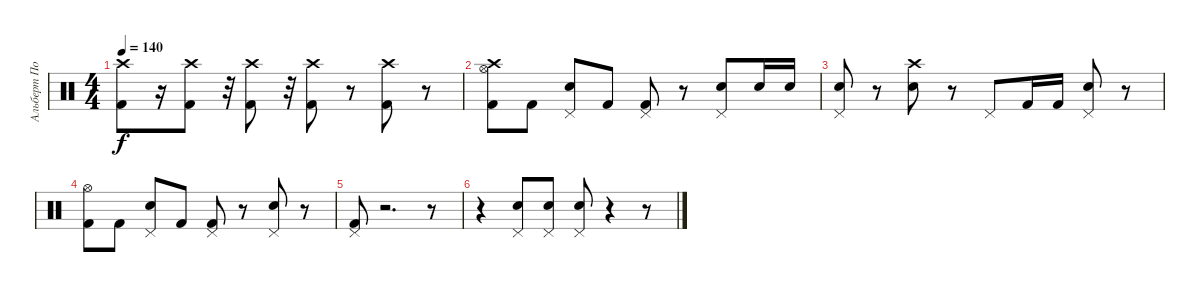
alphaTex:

\track ("Альберт Потапкин" "Альберт По") {instrument percussion}
\staff {score}
\articulation defaults
\ts (4 4)
\tempo 140
\clef neutral
\ks c
("Crash high (hit)" "Kick (hit) 2").8{dy f} r.16 ("Kick (hit) 2" "Crash high (hit)").8 r.32 ("Kick (hit) 2" "Crash high (hit)").8 r.32 ("Crash high (hit)" "Kick (hit) 2").8 r.8 ("Crash high (hit)" "Kick (hit) 2").8 r.8 |
("Crash high (hit)" "Hi-Hat (open)" "Kick (hit) 2").8 "Kick (hit) 2".8 ("Pedal Hi-Hat (hit)" "Electric Snare (hit)").8 "Kick (hit) 2".8 ("Pedal Hi-Hat (hit)" "Kick (hit) 2").8 r.8 ("Pedal Hi-Hat (hit)" "Electric Snare (hit)").8 "Snare (hit) 2".16 "Snare (hit) 2".16 |
("Pedal Hi-Hat (hit)" "Snare (hit) 2").8 r.8 ("Crash high (hit)" "Electric Snare (hit)").8 r.8 "Pedal Hi-Hat (hit)".8 "Kick (hit) 2".16 "Kick (hit) 2".16 ("Pedal Hi-Hat (hit)" "Electric Snare (hit)").8 r.8 |
("Hi-Hat (open)" "Kick (hit) 2").8 "Kick (hit) 2".8 ("Pedal Hi-Hat (hit)" "Electric Snare (hit)").8 "Kick (hit) 2".8 ("Pedal Hi-Hat (hit)" "Kick (hit) 2").8 r.8 ("Pedal Hi-Hat (hit)" "Electric Snare (hit)").8 r.8 |
("Pedal Hi-Hat (hit)" "Kick (hit) 2").8 r.2{d} r.8 |
r.4 ("Snare (hit) 2" "Pedal Hi-Hat (hit)").8 ("Snare (hit) 2" "Pedal Hi-Hat (hit)").8 ("Pedal Hi-Hat (hit)" "Snare (hit) 2").8 r.4 r.8
